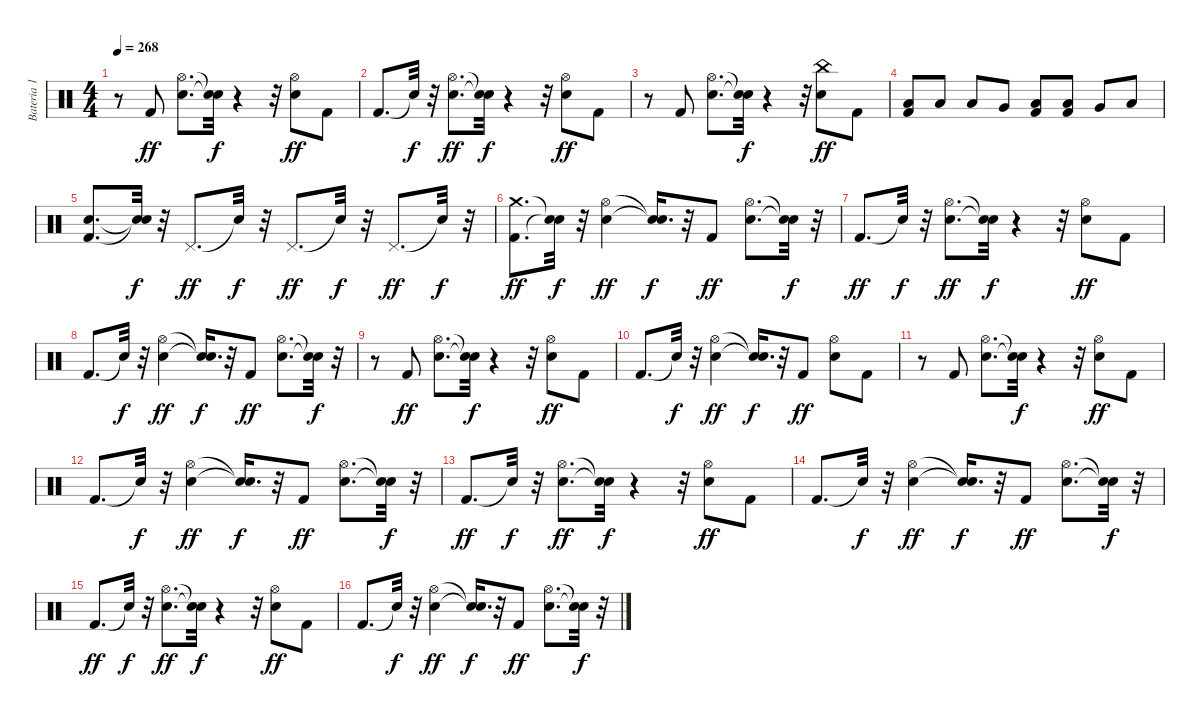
\track ("Bateria 1" "Bateria 1") {instrument percussion}
\staff {score}
\articulation defaults
\ts (4 4)
\tempo 268
\clef neutral
\ks c
r.8{dy f} "Kick (hit) 2".8{dy ff} ("Electric Snare (hit)" "Hi-Hat (open)").8{d} ("Snare (hit)"{t} "Snare (hit)"{t}).32{dy f} r.4 r.32 ("Electric Snare (hit)" "Hi-Hat (open)").8{dy ff} "Kick (hit) 2".8 |
"Kick (hit) 2".8{d} "Snare (hit)"{t}.32{dy f} r.32 ("Electric Snare (hit)" "Hi-Hat (open)").8{d dy ff} ("Snare (hit)"{t} "Snare (hit)"{t}).32{dy f} r.4 r.32 ("Electric Snare (hit)" "Hi-Hat (open)").8{dy ff} "Kick (hit) 2".8 |
r.8 "Kick (hit) 2".8 ("Electric Snare (hit)" "Hi-Hat (open)").8{d} ("Snare (hit)"{t} "Snare (hit)"{t}).32{dy f} r.4 r.32 ("Electric Snare (hit)" "China (hit)").8{dy ff} "Kick (hit) 2".8 |
("Kick (hit) 2" "Low Floor Tom (hit)").8 "Low Floor Tom (hit)".8 "Low Tom (hit)".8 "Very Low Tom (hit)".8 ("Kick (hit) 2" "Low Floor Tom (hit)").8 ("Kick (hit) 2" "Low Tom (hit)").8 "Very Low Tom (hit)".8 "Low Floor Tom (hit)".8 |
("Kick (hit) 2" "Electric Snare (hit)").8{d} ("Snare (hit)"{t} "Snare (hit)"{t}).32{dy f} r.32 "Pedal Hi-Hat (hit)".8{d dy ff} "Snare (hit)"{t}.32{dy f} r.32 "Pedal Hi-Hat (hit)".8{d dy ff} "Snare (hit)"{t}.32{dy f} r.32 "Pedal Hi-Hat (hit)".8{d dy ff} "Snare (hit)"{t}.32{dy f} r.32 |
("Kick (hit) 2" "Crash medium (hit)").8{d dy ff} ("Snare (hit)"{t} "Snare (hit)"{t}).32{dy f} r.32 ("Electric Snare (hit)" "Hi-Hat (open)").4{dy ff} ("Snare (hit)"{t} "Snare (hit)"{t}).16{d dy f} r.32 "Kick (hit) 2".8{dy ff} ("Electric Snare (hit)" "Hi-Hat (open)").8{d} ("Snare (hit)"{t} "Snare (hit)"{t}).32{dy f} r.32 |
"Kick (hit) 2".8{d dy ff} "Snare (hit)"{t}.32{dy f} r.32 ("Electric Snare (hit)" "Hi-Hat (open)").8{d dy ff} ("Snare (hit)"{t} "Snare (hit)"{t}).32{dy f} r.4 r.32 ("Electric Snare (hit)" "Hi-Hat (open)").8{dy ff} "Kick (hit) 2".8 |
"Kick (hit) 2".8{d} "Snare (hit)"{t}.32{dy f} r.32 ("Electric Snare (hit)" "Hi-Hat (open)").4{dy ff} ("Snare (hit)"{t} "Snare (hit)"{t}).16{d dy f} r.32 "Kick (hit) 2".8{dy ff} ("Electric Snare (hit)" "Hi-Hat (open)").8{d} ("Snare (hit)"{t} "Snare (hit)"{t}).32{dy f} r.32 |
r.8 "Kick (hit) 2".8{dy ff} ("Electric Snare (hit)" "Hi-Hat (open)").8{d} ("Snare (hit)"{t} "Snare (hit)"{t}).32{dy f} r.4 r.32 ("Electric Snare (hit)" "Hi-Hat (open)").8{dy ff} "Kick (hit) 2".8 |
"Kick (hit) 2".8{d} "Snare (hit)"{t}.32{dy f} r.32 ("Electric Snare (hit)" "Hi-Hat (open)").4{dy ff} ("Snare (hit)"{t} "Snare (hit)"{t}).16{d dy f} r.32 "Kick (hit) 2".8{dy ff} ("Electric Snare (hit)" "Hi-Hat (open)").8 "Kick (hit) 2".8 |
r.8 "Kick (hit) 2".8 ("Electric Snare (hit)" "Hi-Hat (open)").8{d} ("Snare (hit)"{t} "Snare (hit)"{t}).32{dy f} r.4 r.32 ("Electric Snare (hit)" "Hi-Hat (open)").8{dy ff} "Kick (hit) 2".8 |
"Kick (hit) 2".8{d} "Snare (hit)"{t}.32{dy f} r.32 ("Electric Snare (hit)" "Hi-Hat (open)").4{dy ff} ("Snare (hit)"{t} "Snare (hit)"{t}).16{d dy f} r.32 "Kick (hit) 2".8{dy ff} ("Electric Snare (hit)" "Hi-Hat (open)").8{d} ("Snare (hit)"{t} "Snare (hit)"{t}).32{dy f} r.32 |
"Kick (hit) 2".8{d dy ff} "Snare (hit)"{t}.32{dy f} r.32 ("Electric Snare (hit)" "Hi-Hat (open)").8{d dy ff} ("Snare (hit)"{t} "Snare (hit)"{t}).32{dy f} r.4 r.32 ("Electric Snare (hit)" "Hi-Hat (open)").8{dy ff} "Kick (hit) 2".8 |
"Kick (hit) 2".8{d} "Snare (hit)"{t}.32{dy f} r.32 ("Electric Snare (hit)" "Hi-Hat (open)").4{dy ff} ("Snare (hit)"{t} "Snare (hit)"{t}).16{d dy f} r.32 "Kick (hit) 2".8{dy ff} ("Electric Snare (hit)" "Hi-Hat (open)").8{d} ("Snare (hit)"{t} "Snare (hit)"{t}).32{dy f} r.32 |
"Kick (hit) 2".8{d dy ff} "Snare (hit)"{t}.32{dy f} r.32 ("Electric Snare (hit)" "Hi-Hat (open)").8{d dy ff} ("Snare (hit)"{t} "Snare (hit)"{t}).32{dy f} r.4 r.32 ("Electric Snare (hit)" "Hi-Hat (open)").8{dy ff} "Kick (hit) 2".8 |
"Kick (hit) 2".8{d} "Snare (hit)"{t}.32{dy f} r.32 ("Electric Snare (hit)" "Hi-Hat (open)").4{dy ff} ("Snare (hit)"{t} "Snare (hit)"{t}).16{d dy f} r.32 "Kick (hit) 2".8{dy ff} ("Electric Snare (hit)" "Hi-Hat (open)").8{d} ("Snare (hit)"{t} "Snare (hit)"{t}).32{dy f} r.32
